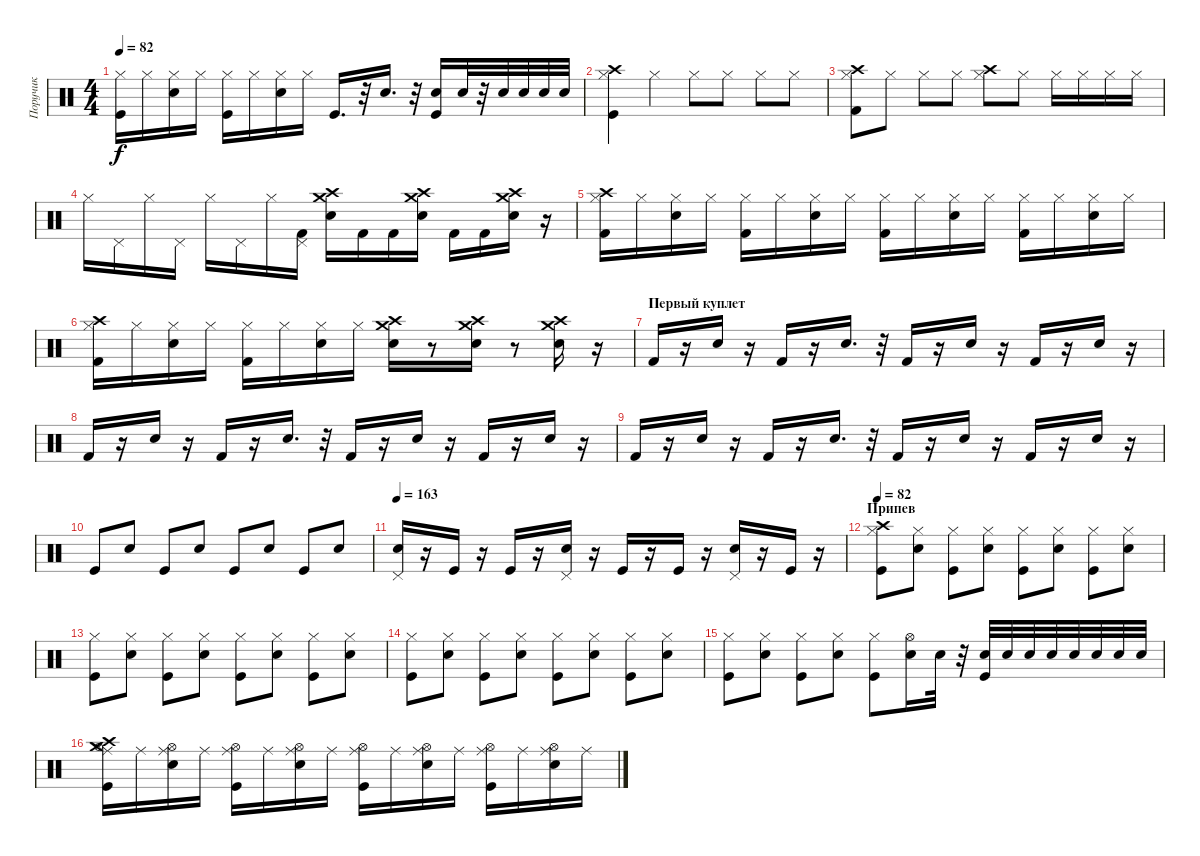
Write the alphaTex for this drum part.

\track ("Поручик" "Поручик") {instrument percussion}
\staff {score}
\articulation defaults
\ts (4 4)
\tempo 82
\clef neutral
\ks c
("Hi-Hat (closed)" "Kick (hit)").16{dy f} "Hi-Hat (closed)".16 ("Snare (hit) 2" "Hi-Hat (closed)").16 "Hi-Hat (closed)".16 ("Hi-Hat (closed)" "Kick (hit)").16 "Hi-Hat (closed)".16 ("Hi-Hat (closed)" "Snare (hit) 2").16 "Hi-Hat (closed)".16 "Kick (hit)".16{d} r.32 "Snare (hit) 2".16{d} r.32 ("Kick (hit)" "Snare (hit) 2").16 "Snare (hit) 2".32 r.32 "Snare (hit) 2".32 "Snare (hit) 2".32 "Snare (hit) 2".32 "Snare (hit) 2".32 |
("Crash high (hit)" "Hi-Hat (closed)" "Kick (hit)").4 "Hi-Hat (closed)".4 "Hi-Hat (closed)".8 "Hi-Hat (closed)".8 "Hi-Hat (closed)".8 "Hi-Hat (closed)".8 |
("Hi-Hat (closed)" "Kick (hit) 2" "Crash high (hit)").8 "Hi-Hat (closed)".8 "Hi-Hat (closed)".8 "Hi-Hat (closed)".8 ("Hi-Hat (closed)" "Crash high (hit)").8 "Hi-Hat (closed)".8 "Hi-Hat (closed)".16 "Hi-Hat (closed)".16 "Hi-Hat (closed)".16 "Hi-Hat (closed)".16 |
"Hi-Hat (closed)".16 "Pedal Hi-Hat (hit)".16 "Hi-Hat (closed)".16 "Pedal Hi-Hat (hit)".16 "Hi-Hat (closed)".16 "Pedal Hi-Hat (hit)".16 "Hi-Hat (closed)".16 ("Kick (hit) 2" "Pedal Hi-Hat (hit)").16 ("Crash medium (hit)" "Snare (hit) 2" "Crash high (hit)").16 "Kick (hit) 2".16 "Kick (hit) 2".16 ("Snare (hit) 2" "Crash high (hit)" "Crash medium (hit)").16 "Kick (hit) 2".16 "Kick (hit) 2".16 ("Crash medium (hit)" "Snare (hit) 2" "Crash high (hit)").16 r.16 |
("Kick (hit) 2" "Hi-Hat (closed)" "Crash high (hit)").16 "Hi-Hat (closed)".16 ("Hi-Hat (closed)" "Snare (hit) 2").16 "Hi-Hat (closed)".16 ("Hi-Hat (closed)" "Kick (hit) 2").16 "Hi-Hat (closed)".16 ("Snare (hit) 2" "Hi-Hat (closed)").16 "Hi-Hat (closed)".16 ("Hi-Hat (closed)" "Kick (hit) 2").16 "Hi-Hat (closed)".16 ("Snare (hit) 2" "Hi-Hat (closed)").16 "Hi-Hat (closed)".16 ("Kick (hit) 2" "Hi-Hat (closed)").16 "Hi-Hat (closed)".16 ("Snare (hit) 2" "Hi-Hat (closed)").16 "Hi-Hat (closed)".16 |
("Hi-Hat (closed)" "Crash high (hit)" "Kick (hit) 2").16 "Hi-Hat (closed)".16 ("Snare (hit) 2" "Hi-Hat (closed)").16 "Hi-Hat (closed)".16 ("Kick (hit) 2" "Hi-Hat (closed)").16 "Hi-Hat (closed)".16 ("Snare (hit) 2" "Hi-Hat (closed)").16 "Hi-Hat (closed)".16 ("Crash high (hit)" "Snare (hit) 2" "Crash medium (hit)").16 r.8 ("Crash medium (hit)" "Snare (hit) 2" "Crash high (hit)").16 r.8 ("Snare (hit) 2" "Crash high (hit)" "Crash medium (hit)").16 r.16 |
\section ("" "Первый куплет")
"Kick (hit) 2".16 r.16 "Snare (hit) 2".16 r.16 "Kick (hit) 2".16 r.16 "Snare (hit) 2".16{d} r.32 "Kick (hit) 2".16 r.16 "Snare (hit) 2".16 r.16 "Kick (hit) 2".16 r.16 "Snare (hit) 2".16 r.16 |
"Kick (hit) 2".16 r.16 "Snare (hit) 2".16 r.16 "Kick (hit) 2".16 r.16 "Snare (hit) 2".16{d} r.32 "Kick (hit) 2".16 r.16 "Snare (hit) 2".16 r.16 "Kick (hit) 2".16 r.16 "Snare (hit) 2".16 r.16 |
"Kick (hit) 2".16 r.16 "Snare (hit) 2".16 r.16 "Kick (hit) 2".16 r.16 "Snare (hit) 2".16{d} r.32 "Kick (hit) 2".16 r.16 "Snare (hit) 2".16 r.16 "Kick (hit) 2".16 r.16 "Snare (hit) 2".16 r.16 |
"Kick (hit)".8 "Snare (hit) 2".8 "Kick (hit)".8 "Snare (hit) 2".8 "Kick (hit)".8 "Snare (hit) 2".8 "Kick (hit)".8 "Snare (hit) 2".8 |
\tempo 163
("Pedal Hi-Hat (hit)" "Snare (hit) 2").16 r.16 "Kick (hit)".16 r.16 "Kick (hit)".16 r.16 ("Pedal Hi-Hat (hit)" "Snare (hit) 2").16 r.16 "Kick (hit)".16 r.16 "Kick (hit)".16 r.16 ("Pedal Hi-Hat (hit)" "Snare (hit) 2").16 r.16 "Kick (hit)".16 r.16 |
\section ("" "Припев")
\tempo 82
("Hi-Hat (closed)" "Kick (hit)" "Crash high (hit)").8 ("Hi-Hat (closed)" "Snare (hit) 2").8 ("Hi-Hat (closed)" "Kick (hit)").8 ("Hi-Hat (closed)" "Snare (hit) 2").8 ("Hi-Hat (closed)" "Kick (hit)").8 ("Hi-Hat (closed)" "Snare (hit) 2").8 ("Hi-Hat (closed)" "Kick (hit)").8 ("Hi-Hat (closed)" "Snare (hit) 2").8 |
("Kick (hit)" "Hi-Hat (closed)").8 ("Snare (hit) 2" "Hi-Hat (closed)").8 ("Kick (hit)" "Hi-Hat (closed)").8 ("Snare (hit) 2" "Hi-Hat (closed)").8 ("Kick (hit)" "Hi-Hat (closed)").8 ("Snare (hit) 2" "Hi-Hat (closed)").8 ("Kick (hit)" "Hi-Hat (closed)").8 ("Snare (hit) 2" "Hi-Hat (closed)").8 |
("Hi-Hat (closed)" "Kick (hit)").8 ("Hi-Hat (closed)" "Snare (hit) 2").8 ("Hi-Hat (closed)" "Kick (hit)").8 ("Hi-Hat (closed)" "Snare (hit) 2").8 ("Hi-Hat (closed)" "Kick (hit)").8 ("Hi-Hat (closed)" "Snare (hit) 2").8 ("Hi-Hat (closed)" "Kick (hit)").8 ("Hi-Hat (closed)" "Snare (hit) 2").8 |
("Hi-Hat (closed)" "Kick (hit)").8 ("Hi-Hat (closed)" "Snare (hit) 2").8 ("Hi-Hat (closed)" "Kick (hit)").8 ("Snare (hit) 2" "Hi-Hat (closed)").8 ("Kick (hit)" "Hi-Hat (closed)").8 ("Snare (hit) 2" "Hi-Hat (open)").16 "Snare (hit) 2".32 r.32 ("Snare (hit) 2" "Kick (hit)").32 "Snare (hit) 2".32 "Snare (hit) 2".32 "Snare (hit) 2".32 "Snare (hit) 2".32 "Snare (hit) 2".32 "Snare (hit) 2".32 "Snare (hit) 2".32 |
("Ride (middle)" "Hi-Hat (open)" "Kick (hit)" "Crash medium (hit)" "Crash high (hit)").16 "Ride (middle)".16 ("Hi-Hat (open)" "Ride (middle)" "Snare (hit) 2").16 "Ride (middle)".16 ("Ride (middle)" "Hi-Hat (open)" "Kick (hit)").16 "Ride (middle)".16 ("Hi-Hat (open)" "Ride (middle)" "Snare (hit) 2").16 "Ride (middle)".16 ("Ride (middle)" "Hi-Hat (open)" "Kick (hit)").16 "Ride (middle)".16 ("Hi-Hat (open)" "Ride (middle)" "Snare (hit) 2").16 "Ride (middle)".16 ("Ride (middle)" "Hi-Hat (open)" "Kick (hit)").16 "Ride (middle)".16 ("Hi-Hat (open)" "Ride (middle)" "Snare (hit) 2").16 "Ride (middle)".16
